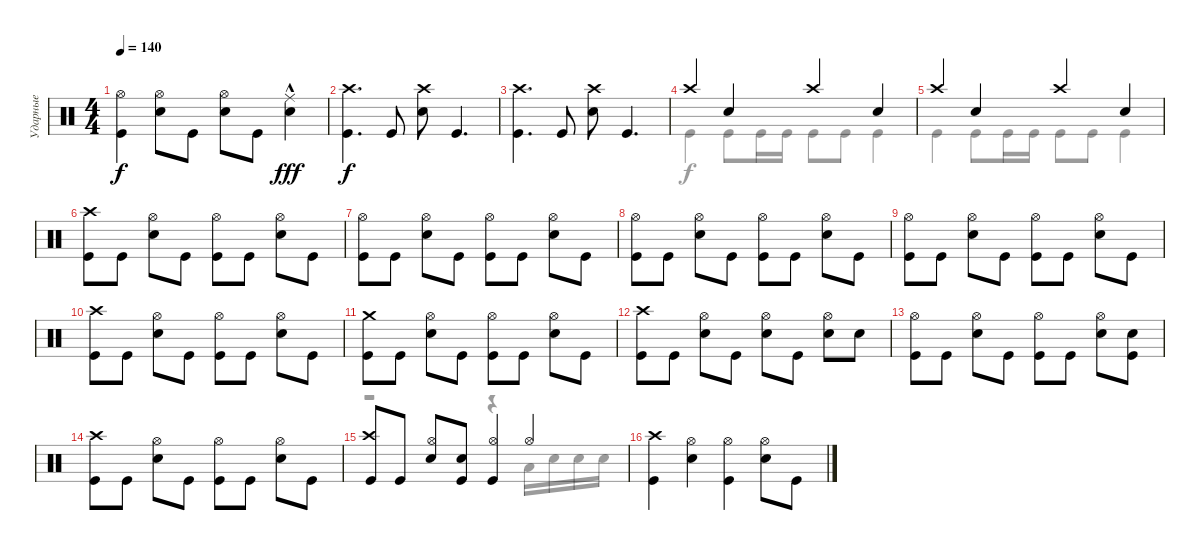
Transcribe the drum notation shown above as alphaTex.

\track ("Ударные" "Ударные") {instrument percussion}
\staff {score}
\articulation defaults
\voice
\ts (4 4)
\tempo 140
\clef neutral
\ks c
("Hi-Hat (open)" "Kick (hit)").4{dy f} ("Hi-Hat (open)" "Electric Snare (hit)").8 "Kick (hit)".8 ("Hi-Hat (open)" "Electric Snare (hit)").8 "Kick (hit)".8 ("Ride (middle)"{hac} "Electric Snare (hit)").4{dy fff} |
("Crash high (hit)" "Kick (hit)").4{d dy f balance 16} "Kick (hit)".8{balance 8} ("Crash high (hit)" "Electric Snare (hit)").8{balance 0} "Kick (hit)".4{d balance 8} |
("Crash high (hit)" "Kick (hit)").4{d balance 16} "Kick (hit)".8{balance 8} ("Crash high (hit)" "Electric Snare (hit)").8{balance 0} "Kick (hit)".4{d balance 8} |
"Crash high (hit)".4 "Electric Snare (hit)".4 "Crash high (hit)".4 "Electric Snare (hit)".4 |
"Crash high (hit)".4 "Electric Snare (hit)".4 "Crash high (hit)".4 "Electric Snare (hit)".4 |
("Crash high (hit)" "Kick (hit)").8 "Kick (hit)".8 ("Hi-Hat (open)" "Electric Snare (hit)").8 "Kick (hit)".8 ("Hi-Hat (open)" "Kick (hit)").8 "Kick (hit)".8 ("Hi-Hat (open)" "Electric Snare (hit)").8 "Kick (hit)".8 |
("Hi-Hat (open)" "Kick (hit)").8 "Kick (hit)".8 ("Hi-Hat (open)" "Electric Snare (hit)").8 "Kick (hit)".8 ("Hi-Hat (open)" "Kick (hit)").8 "Kick (hit)".8 ("Hi-Hat (open)" "Electric Snare (hit)").8 "Kick (hit)".8 |
("Hi-Hat (open)" "Kick (hit)").8 "Kick (hit)".8 ("Hi-Hat (open)" "Electric Snare (hit)").8 "Kick (hit)".8 ("Hi-Hat (open)" "Kick (hit)").8 "Kick (hit)".8 ("Hi-Hat (open)" "Electric Snare (hit)").8 "Kick (hit)".8 |
("Hi-Hat (open)" "Kick (hit)").8 "Kick (hit)".8 ("Hi-Hat (open)" "Electric Snare (hit)").8 "Kick (hit)".8 ("Hi-Hat (open)" "Kick (hit)").8 "Kick (hit)".8 ("Hi-Hat (open)" "Electric Snare (hit)").8 "Kick (hit)".8 |
("Crash high (hit)" "Kick (hit)").8 "Kick (hit)".8 ("Hi-Hat (open)" "Electric Snare (hit)").8 "Kick (hit)".8 ("Hi-Hat (open)" "Kick (hit)").8 "Kick (hit)".8 ("Hi-Hat (open)" "Electric Snare (hit)").8 "Kick (hit)".8 |
("Crash medium (hit)" "Kick (hit)").8 "Kick (hit)".8 ("Hi-Hat (open)" "Electric Snare (hit)").8 "Kick (hit)".8 ("Hi-Hat (open)" "Kick (hit)").8 "Kick (hit)".8 ("Hi-Hat (open)" "Electric Snare (hit)").8 "Kick (hit)".8 |
("Crash high (hit)" "Kick (hit)").8 "Kick (hit)".8 ("Hi-Hat (open)" "Electric Snare (hit)").8 "Kick (hit)".8 ("Hi-Hat (open)" "Electric Snare (hit)").8 "Kick (hit)".8 ("Hi-Hat (open)" "Electric Snare (hit)").8 "Electric Snare (hit)".8 |
("Hi-Hat (open)" "Kick (hit)").8 "Kick (hit)".8 ("Hi-Hat (open)" "Electric Snare (hit)").8 "Kick (hit)".8 ("Hi-Hat (open)" "Kick (hit)").8 "Kick (hit)".8 ("Hi-Hat (open)" "Electric Snare (hit)").8 ("Electric Snare (hit)" "Kick (hit)").8 |
("Crash high (hit)" "Kick (hit)").8 "Kick (hit)".8 ("Hi-Hat (open)" "Electric Snare (hit)").8 "Kick (hit)".8 ("Hi-Hat (open)" "Kick (hit)").8 "Kick (hit)".8 ("Hi-Hat (open)" "Electric Snare (hit)").8 "Kick (hit)".8 |
("Crash high (hit)" "Kick (hit)").8 "Kick (hit)".8 ("Hi-Hat (open)" "Electric Snare (hit)").8 ("Electric Snare (hit)" "Kick (hit)").8 ("Hi-Hat (open)" "Kick (hit)").4 "Hi-Hat (open)".4 |
("Crash high (hit)" "Kick (hit)").4 ("Hi-Hat (open)" "Electric Snare (hit)").4 ("Hi-Hat (open)" "Kick (hit)").4 ("Hi-Hat (open)" "Electric Snare (hit)").8 "Kick (hit)".8
\voice
\clef neutral
\ottava regular
\simile none
\ks c
|
|
|
"Kick (hit)".4 "Kick (hit)".8 "Kick (hit)".16 "Kick (hit)".16 "Kick (hit)".8 "Kick (hit)".8 "Kick (hit)".4 |
"Kick (hit)".4 "Kick (hit)".8 "Kick (hit)".16 "Kick (hit)".16 "Kick (hit)".8 "Kick (hit)".8 "Kick (hit)".4 |
|
|
|
|
|
|
|
|
|
r.2 r.4 "Low Floor Tom (hit)".16 "Electric Snare (hit)".16 "Electric Snare (hit)".16 "Electric Snare (hit)".16 |
